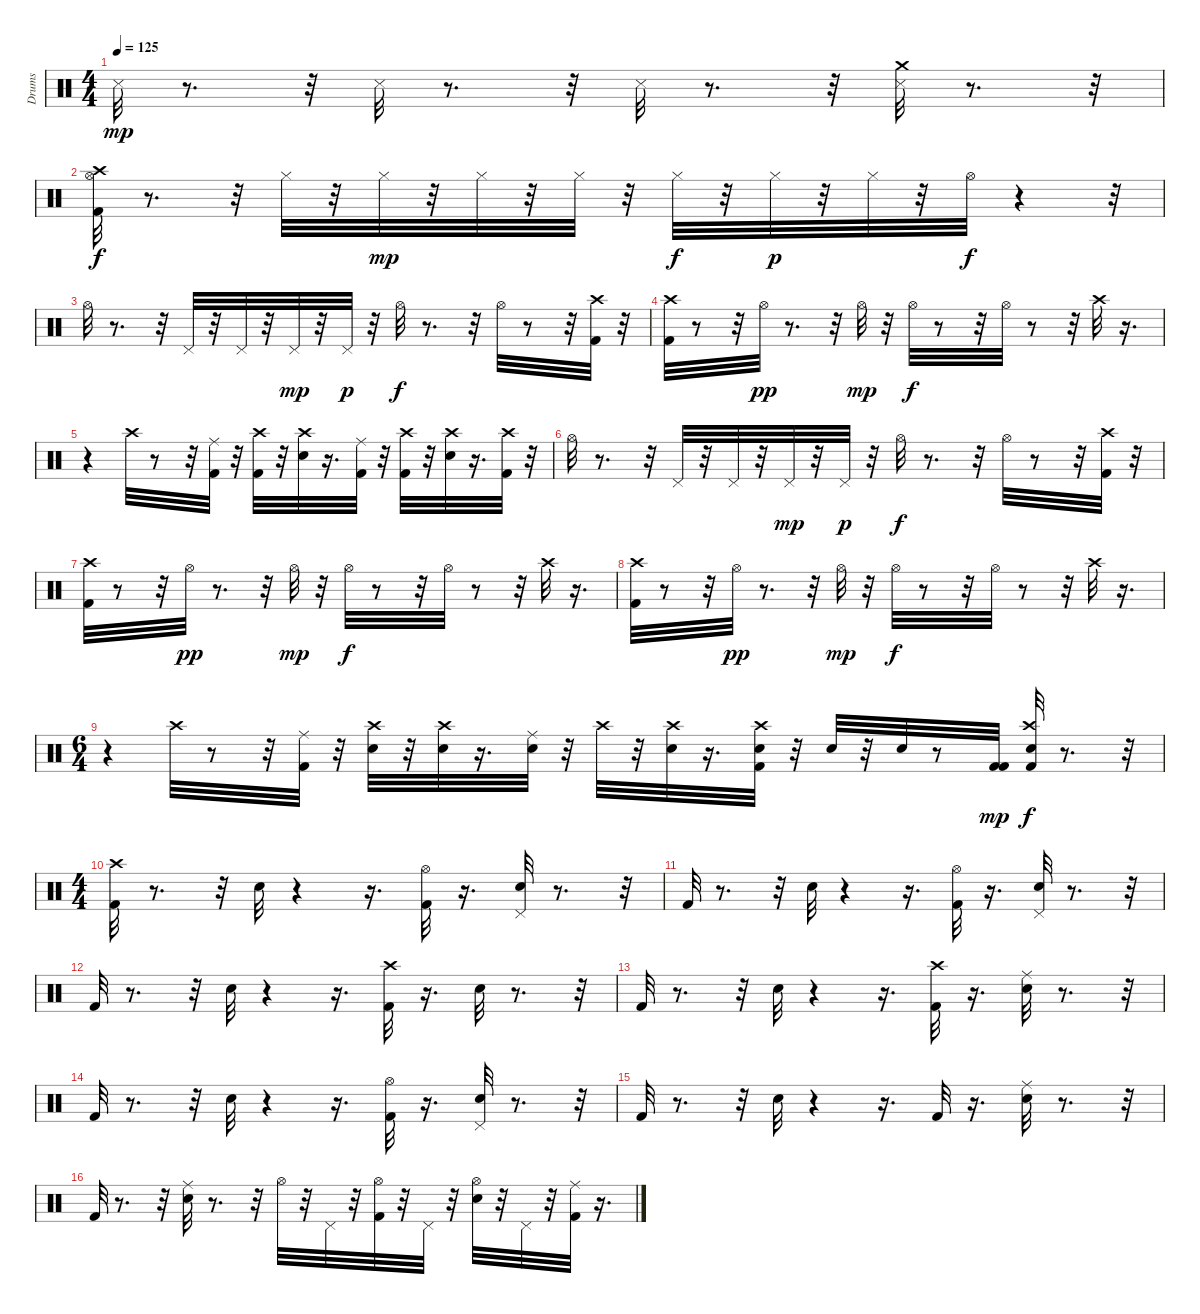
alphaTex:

\track ("Drums" "Drums") {instrument percussion}
\staff {score}
\articulation defaults
\ts (4 4)
\tempo 125
\clef neutral
\ks c "Snare (side stick) 3".32{dy mp}
r.8{d} r.32 "Snare (side stick) 3".32 r.8{d} r.32 "Snare (side stick) 3".32 r.8{d} r.32 ("Crash medium (hit)" "Snare (side stick) 3").32 r.8{d} r.32 |
("Kick (hit) 2" "Hi-Hat (open)" "Crash high (hit)").32{dy f} r.8{d} r.32 "Hi-Hat (closed)".32 r.32 "Hi-Hat (closed)".32{dy mp} r.32 "Hi-Hat (closed)".32 r.32 "Hi-Hat (closed)".32 r.32 "Hi-Hat (closed)".32{dy f} r.32 "Hi-Hat (closed)".32{dy p} r.32 "Hi-Hat (closed)".32 r.32 "Hi-Hat (open)".32{dy f} r.4 r.32 |
"Hi-Hat (open)".32 r.8{d} r.32 "Pedal Hi-Hat (hit)".32 r.32 "Pedal Hi-Hat (hit)".32 r.32 "Pedal Hi-Hat (hit)".32{dy mp} r.32 "Pedal Hi-Hat (hit)".32{dy p} r.32 "Hi-Hat (open)".32{dy f} r.8{d} r.32 "Hi-Hat (open)".32 r.8 r.32 ("Crash high (hit)" "Kick (hit) 2").32 r.32 |
("Crash high (hit)" "Kick (hit) 2").32 r.8 r.32 "Hi-Hat (open)".32{dy pp} r.8{d} r.32 "Hi-Hat (open)".32{dy mp} r.32 "Hi-Hat (open)".32{dy f} r.8 r.32 "Hi-Hat (open)".32 r.8 r.32 "Crash high (hit)".32 r.16{d} |
r.4 "Crash high (hit)".32 r.8 r.32 ("Ride (middle)" "Kick (hit) 2").32 r.32 ("Crash high (hit)" "Kick (hit) 2").32 r.32 ("Crash high (hit)" "Snare (hit) 2").32 r.16{d} ("Ride (middle)" "Kick (hit) 2").32 r.32 ("Crash high (hit)" "Kick (hit) 2").32 r.32 ("Crash high (hit)" "Snare (hit) 2").32 r.16{d} ("Kick (hit) 2" "Crash high (hit)").32 r.32 |
"Hi-Hat (open)".32 r.8{d} r.32 "Pedal Hi-Hat (hit)".32 r.32 "Pedal Hi-Hat (hit)".32 r.32 "Pedal Hi-Hat (hit)".32{dy mp} r.32 "Pedal Hi-Hat (hit)".32{dy p} r.32 "Hi-Hat (open)".32{dy f} r.8{d} r.32 "Hi-Hat (open)".32 r.8 r.32 ("Crash high (hit)" "Kick (hit) 2").32 r.32 |
("Crash high (hit)" "Kick (hit) 2").32 r.8 r.32 "Hi-Hat (open)".32{dy pp} r.8{d} r.32 "Hi-Hat (open)".32{dy mp} r.32 "Hi-Hat (open)".32{dy f} r.8 r.32 "Hi-Hat (open)".32 r.8 r.32 "Crash high (hit)".32 r.16{d} |
("Crash high (hit)" "Kick (hit) 2").32 r.8 r.32 "Hi-Hat (open)".32{dy pp} r.8{d} r.32 "Hi-Hat (open)".32{dy mp} r.32 "Hi-Hat (open)".32{dy f} r.8 r.32 "Hi-Hat (open)".32 r.8 r.32 "Crash high (hit)".32 r.16{d} |
\ts (6 4)
r.4 "Crash high (hit)".32 r.8 r.32 ("Ride (middle)" "Kick (hit) 2").32 r.32 ("Snare (hit) 2" "Crash high (hit)").32 r.32 ("Crash high (hit)" "Snare (hit) 2").32 r.16{d} ("Snare (hit) 2" "Ride (middle)").32 r.32 "Crash high (hit)".32 r.32 ("Crash high (hit)" "Snare (hit) 2").32 r.16{d} ("Snare (hit) 2" "Kick (hit) 2" "Crash high (hit)").32 r.32 "Snare (hit) 2".32 r.32 "Snare (hit) 2".32 r.8 ("Kick (hit) 2" "Kick (hit) 2").32{dy mp} ("Kick (hit) 2" "Crash high (hit)" "Snare (hit) 2").32{dy f} r.8{d} r.32 |
\ts (4 4)
("Crash high (hit)" "Kick (hit) 2").32 r.8{d} r.32 "Snare (hit) 2".32 r.4 r.16{d} ("Hi-Hat (open)" "Kick (hit) 2").32 r.16{d} ("Pedal Hi-Hat (hit)" "Snare (hit) 2").32 r.8{d} r.32 |
"Kick (hit) 2".32 r.8{d} r.32 "Snare (hit) 2".32 r.4 r.16{d} ("Hi-Hat (open)" "Kick (hit) 2").32 r.16{d} ("Pedal Hi-Hat (hit)" "Snare (hit) 2").32 r.8{d} r.32 |
"Kick (hit) 2".32 r.8{d} r.32 "Snare (hit) 2".32 r.4 r.16{d} ("Crash high (hit)" "Kick (hit) 2").32 r.16{d} "Snare (hit) 2".32 r.8{d} r.32 |
"Kick (hit) 2".32 r.8{d} r.32 "Snare (hit) 2".32 r.4 r.16{d} ("Crash high (hit)" "Kick (hit) 2").32 r.16{d} ("Ride (middle)" "Snare (hit) 2").32 r.8{d} r.32 |
"Kick (hit) 2".32 r.8{d} r.32 "Snare (hit) 2".32 r.4 r.16{d} ("Hi-Hat (open)" "Kick (hit) 2").32 r.16{d} ("Pedal Hi-Hat (hit)" "Snare (hit) 2").32 r.8{d} r.32 |
"Kick (hit) 2".32 r.8{d} r.32 "Snare (hit) 2".32 r.4 r.16{d} "Kick (hit) 2".32 r.16{d} ("Ride (middle)" "Snare (hit) 2").32 r.8{d} r.32 |
"Kick (hit) 2".32 r.8{d} r.32 ("Ride (middle)" "Snare (hit) 2").32 r.8{d} r.32 "Hi-Hat (open)".32 r.32 "Pedal Hi-Hat (hit)".32 r.32 ("Hi-Hat (open)" "Kick (hit) 2").32 r.32 "Pedal Hi-Hat (hit)".32 r.32 ("Hi-Hat (open)" "Snare (hit) 2").32 r.32 "Pedal Hi-Hat (hit)".32 r.32 ("Kick (hit) 2" "Ride (middle)").32 r.16{d}
